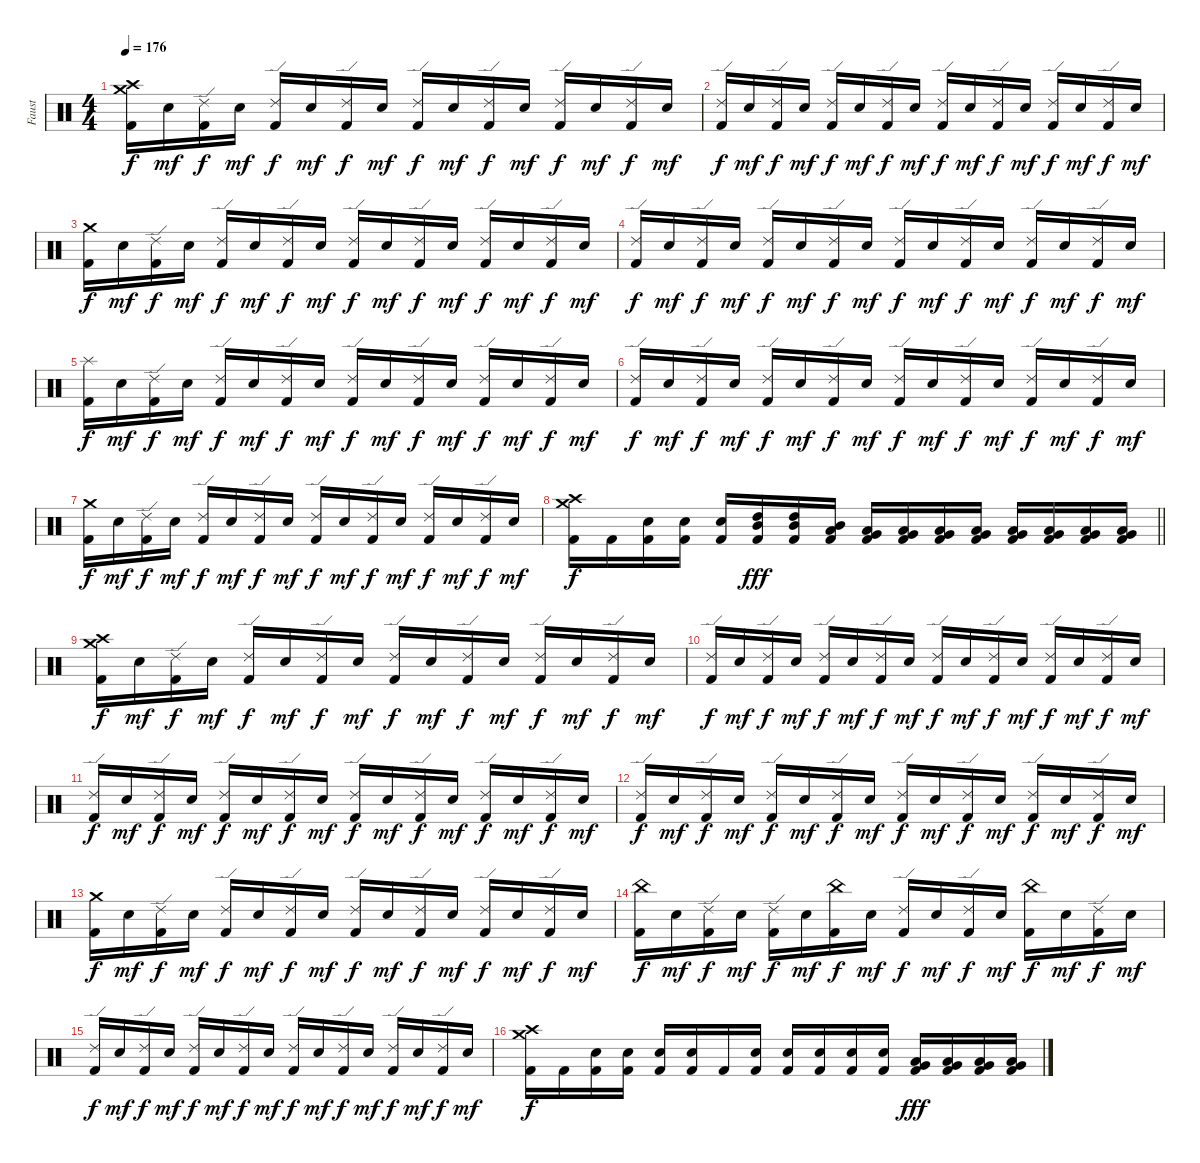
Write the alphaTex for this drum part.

\track ("Faust" "Faust") {instrument percussion}
\staff {score}
\articulation defaults
\ts (4 4)
\section ("" "")
\tempo 176
\clef neutral
\ks c
("Crash high (hit)" "Crash medium (hit)" "Kick (hit) 2").16{dy f} "Electric Snare (hit)".16{dy mf} ("Ride (edge) 2" "Kick (hit) 2").16{dy f} "Electric Snare (hit)".16{dy mf} ("Ride (edge) 2" "Kick (hit) 2").16{dy f} "Electric Snare (hit)".16{dy mf} ("Ride (edge) 2" "Kick (hit) 2").16{dy f} "Electric Snare (hit)".16{dy mf} ("Ride (edge) 2" "Kick (hit) 2").16{dy f} "Electric Snare (hit)".16{dy mf} ("Ride (edge) 2" "Kick (hit) 2").16{dy f} "Electric Snare (hit)".16{dy mf} ("Ride (edge) 2" "Kick (hit) 2").16{dy f} "Electric Snare (hit)".16{dy mf} ("Ride (edge) 2" "Kick (hit) 2").16{dy f} "Electric Snare (hit)".16{dy mf} |
("Ride (edge) 2" "Kick (hit) 2").16{dy f} "Electric Snare (hit)".16{dy mf} ("Ride (edge) 2" "Kick (hit) 2").16{dy f} "Electric Snare (hit)".16{dy mf} ("Ride (edge) 2" "Kick (hit) 2").16{dy f} "Electric Snare (hit)".16{dy mf} ("Ride (edge) 2" "Kick (hit) 2").16{dy f} "Electric Snare (hit)".16{dy mf} ("Ride (edge) 2" "Kick (hit) 2").16{dy f} "Electric Snare (hit)".16{dy mf} ("Ride (edge) 2" "Kick (hit) 2").16{dy f} "Electric Snare (hit)".16{dy mf} ("Ride (edge) 2" "Kick (hit) 2").16{dy f} "Electric Snare (hit)".16{dy mf} ("Ride (edge) 2" "Kick (hit) 2").16{dy f} "Electric Snare (hit)".16{dy mf} |
("Crash medium (hit)" "Kick (hit) 2").16{dy f} "Electric Snare (hit)".16{dy mf} ("Ride (edge) 2" "Kick (hit) 2").16{dy f} "Electric Snare (hit)".16{dy mf} ("Ride (edge) 2" "Kick (hit) 2").16{dy f} "Electric Snare (hit)".16{dy mf} ("Ride (edge) 2" "Kick (hit) 2").16{dy f} "Electric Snare (hit)".16{dy mf} ("Ride (edge) 2" "Kick (hit) 2").16{dy f} "Electric Snare (hit)".16{dy mf} ("Ride (edge) 2" "Kick (hit) 2").16{dy f} "Electric Snare (hit)".16{dy mf} ("Ride (edge) 2" "Kick (hit) 2").16{dy f} "Electric Snare (hit)".16{dy mf} ("Ride (edge) 2" "Kick (hit) 2").16{dy f} "Electric Snare (hit)".16{dy mf} |
("Ride (edge) 2" "Kick (hit) 2").16{dy f} "Electric Snare (hit)".16{dy mf} ("Ride (edge) 2" "Kick (hit) 2").16{dy f} "Electric Snare (hit)".16{dy mf} ("Ride (edge) 2" "Kick (hit) 2").16{dy f} "Electric Snare (hit)".16{dy mf} ("Ride (edge) 2" "Kick (hit) 2").16{dy f} "Electric Snare (hit)".16{dy mf} ("Ride (edge) 2" "Kick (hit) 2").16{dy f} "Electric Snare (hit)".16{dy mf} ("Ride (edge) 2" "Kick (hit) 2").16{dy f} "Electric Snare (hit)".16{dy mf} ("Ride (edge) 2" "Kick (hit) 2").16{dy f} "Electric Snare (hit)".16{dy mf} ("Ride (edge) 2" "Kick (hit) 2").16{dy f} "Electric Snare (hit)".16{dy mf} |
("Splash (hit)" "Kick (hit) 2").16{dy f} "Electric Snare (hit)".16{dy mf} ("Ride (edge) 2" "Kick (hit) 2").16{dy f} "Electric Snare (hit)".16{dy mf} ("Ride (edge) 2" "Kick (hit) 2").16{dy f} "Electric Snare (hit)".16{dy mf} ("Ride (edge) 2" "Kick (hit) 2").16{dy f} "Electric Snare (hit)".16{dy mf} ("Ride (edge) 2" "Kick (hit) 2").16{dy f} "Electric Snare (hit)".16{dy mf} ("Ride (edge) 2" "Kick (hit) 2").16{dy f} "Electric Snare (hit)".16{dy mf} ("Ride (edge) 2" "Kick (hit) 2").16{dy f} "Electric Snare (hit)".16{dy mf} ("Ride (edge) 2" "Kick (hit) 2").16{dy f} "Electric Snare (hit)".16{dy mf} |
("Ride (edge) 2" "Kick (hit) 2").16{dy f} "Electric Snare (hit)".16{dy mf} ("Ride (edge) 2" "Kick (hit) 2").16{dy f} "Electric Snare (hit)".16{dy mf} ("Ride (edge) 2" "Kick (hit) 2").16{dy f} "Electric Snare (hit)".16{dy mf} ("Ride (edge) 2" "Kick (hit) 2").16{dy f} "Electric Snare (hit)".16{dy mf} ("Ride (edge) 2" "Kick (hit) 2").16{dy f} "Electric Snare (hit)".16{dy mf} ("Ride (edge) 2" "Kick (hit) 2").16{dy f} "Electric Snare (hit)".16{dy mf} ("Ride (edge) 2" "Kick (hit) 2").16{dy f} "Electric Snare (hit)".16{dy mf} ("Ride (edge) 2" "Kick (hit) 2").16{dy f} "Electric Snare (hit)".16{dy mf} |
("Crash medium (hit)" "Kick (hit) 2").16{dy f} "Electric Snare (hit)".16{dy mf} ("Ride (edge) 2" "Kick (hit) 2").16{dy f} "Electric Snare (hit)".16{dy mf} ("Ride (edge) 2" "Kick (hit) 2").16{dy f} "Electric Snare (hit)".16{dy mf} ("Ride (edge) 2" "Kick (hit) 2").16{dy f} "Electric Snare (hit)".16{dy mf} ("Ride (edge) 2" "Kick (hit) 2").16{dy f} "Electric Snare (hit)".16{dy mf} ("Ride (edge) 2" "Kick (hit) 2").16{dy f} "Electric Snare (hit)".16{dy mf} ("Ride (edge) 2" "Kick (hit) 2").16{dy f} "Electric Snare (hit)".16{dy mf} ("Ride (edge) 2" "Kick (hit) 2").16{dy f} "Electric Snare (hit)".16{dy mf} |
\barLineRight lightlight
("Crash medium (hit)" "Crash high (hit)" "Kick (hit) 2").16{dy f} "Kick (hit) 2".16 ("Electric Snare (hit)" "Kick (hit) 2").16 ("Electric Snare (hit)" "Kick (hit) 2").16 ("Electric Snare (hit)" "Kick (hit) 2").16 ("High Tom (hit)" "Mid Tom (hit)" "Kick (hit) 2").16{dy fff} ("High Tom (hit)" "Mid Tom (hit)" "Kick (hit) 2").16 ("Mid Tom (hit)" "Low Tom (hit)" "Kick (hit) 2").16 ("Low Tom (hit)" "Very Low Tom (hit)" "Kick (hit) 2").16 ("Low Tom (hit)" "Very Low Tom (hit)" "Kick (hit) 2").16 ("Low Tom (hit)" "Very Low Tom (hit)" "Kick (hit) 2").16 ("Low Tom (hit)" "Very Low Tom (hit)" "Kick (hit) 2").16 ("Very Low Tom (hit)" "Low Floor Tom (hit)" "Kick (hit) 2").16 ("Very Low Tom (hit)" "Low Floor Tom (hit)" "Kick (hit) 2").16 ("Very Low Tom (hit)" "Low Floor Tom (hit)" "Kick (hit) 2").16 ("Very Low Tom (hit)" "Low Floor Tom (hit)" "Kick (hit) 2").16 |
\section ("" "")
("Crash high (hit)" "Crash medium (hit)" "Kick (hit) 2").16{dy f} "Electric Snare (hit)".16{dy mf} ("Ride (edge) 2" "Kick (hit) 2").16{dy f} "Electric Snare (hit)".16{dy mf} ("Ride (edge) 2" "Kick (hit) 2").16{dy f} "Electric Snare (hit)".16{dy mf} ("Ride (edge) 2" "Kick (hit) 2").16{dy f} "Electric Snare (hit)".16{dy mf} ("Ride (edge) 2" "Kick (hit) 2").16{dy f} "Electric Snare (hit)".16{dy mf} ("Ride (edge) 2" "Kick (hit) 2").16{dy f} "Electric Snare (hit)".16{dy mf} ("Ride (edge) 2" "Kick (hit) 2").16{dy f} "Electric Snare (hit)".16{dy mf} ("Ride (edge) 2" "Kick (hit) 2").16{dy f} "Electric Snare (hit)".16{dy mf} |
("Ride (edge) 2" "Kick (hit) 2").16{dy f} "Electric Snare (hit)".16{dy mf} ("Ride (edge) 2" "Kick (hit) 2").16{dy f} "Electric Snare (hit)".16{dy mf} ("Ride (edge) 2" "Kick (hit) 2").16{dy f} "Electric Snare (hit)".16{dy mf} ("Ride (edge) 2" "Kick (hit) 2").16{dy f} "Electric Snare (hit)".16{dy mf} ("Ride (edge) 2" "Kick (hit) 2").16{dy f} "Electric Snare (hit)".16{dy mf} ("Ride (edge) 2" "Kick (hit) 2").16{dy f} "Electric Snare (hit)".16{dy mf} ("Ride (edge) 2" "Kick (hit) 2").16{dy f} "Electric Snare (hit)".16{dy mf} ("Ride (edge) 2" "Kick (hit) 2").16{dy f} "Electric Snare (hit)".16{dy mf} |
("Ride (edge) 2" "Kick (hit) 2").16{dy f} "Electric Snare (hit)".16{dy mf} ("Ride (edge) 2" "Kick (hit) 2").16{dy f} "Electric Snare (hit)".16{dy mf} ("Ride (edge) 2" "Kick (hit) 2").16{dy f} "Electric Snare (hit)".16{dy mf} ("Ride (edge) 2" "Kick (hit) 2").16{dy f} "Electric Snare (hit)".16{dy mf} ("Ride (edge) 2" "Kick (hit) 2").16{dy f} "Electric Snare (hit)".16{dy mf} ("Ride (edge) 2" "Kick (hit) 2").16{dy f} "Electric Snare (hit)".16{dy mf} ("Ride (edge) 2" "Kick (hit) 2").16{dy f} "Electric Snare (hit)".16{dy mf} ("Ride (edge) 2" "Kick (hit) 2").16{dy f} "Electric Snare (hit)".16{dy mf} |
("Ride (edge) 2" "Kick (hit) 2").16{dy f} "Electric Snare (hit)".16{dy mf} ("Ride (edge) 2" "Kick (hit) 2").16{dy f} "Electric Snare (hit)".16{dy mf} ("Ride (edge) 2" "Kick (hit) 2").16{dy f} "Electric Snare (hit)".16{dy mf} ("Ride (edge) 2" "Kick (hit) 2").16{dy f} "Electric Snare (hit)".16{dy mf} ("Ride (edge) 2" "Kick (hit) 2").16{dy f} "Electric Snare (hit)".16{dy mf} ("Ride (edge) 2" "Kick (hit) 2").16{dy f} "Electric Snare (hit)".16{dy mf} ("Ride (edge) 2" "Kick (hit) 2").16{dy f} "Electric Snare (hit)".16{dy mf} ("Ride (edge) 2" "Kick (hit) 2").16{dy f} "Electric Snare (hit)".16{dy mf} |
("Crash medium (hit)" "Kick (hit) 2").16{dy f} "Electric Snare (hit)".16{dy mf} ("Ride (edge) 2" "Kick (hit) 2").16{dy f} "Electric Snare (hit)".16{dy mf} ("Ride (edge) 2" "Kick (hit) 2").16{dy f} "Electric Snare (hit)".16{dy mf} ("Ride (edge) 2" "Kick (hit) 2").16{dy f} "Electric Snare (hit)".16{dy mf} ("Ride (edge) 2" "Kick (hit) 2").16{dy f} "Electric Snare (hit)".16{dy mf} ("Ride (edge) 2" "Kick (hit) 2").16{dy f} "Electric Snare (hit)".16{dy mf} ("Ride (edge) 2" "Kick (hit) 2").16{dy f} "Electric Snare (hit)".16{dy mf} ("Ride (edge) 2" "Kick (hit) 2").16{dy f} "Electric Snare (hit)".16{dy mf} |
("China (hit)" "Kick (hit) 2").16{dy f} "Electric Snare (hit)".16{dy mf} ("Ride (edge) 2" "Kick (hit) 2").16{dy f} "Electric Snare (hit)".16{dy mf} ("Ride (edge) 2" "Kick (hit) 2").16{dy f} "Electric Snare (hit)".16{dy mf} ("China (hit)" "Kick (hit) 2").16{dy f} "Electric Snare (hit)".16{dy mf} ("Ride (edge) 2" "Kick (hit) 2").16{dy f} "Electric Snare (hit)".16{dy mf} ("Ride (edge) 2" "Kick (hit) 2").16{dy f} "Electric Snare (hit)".16{dy mf} ("China (hit)" "Kick (hit) 2").16{dy f} "Electric Snare (hit)".16{dy mf} ("Ride (edge) 2" "Kick (hit) 2").16{dy f} "Electric Snare (hit)".16{dy mf} |
("Ride (edge) 2" "Kick (hit) 2").16{dy f} "Electric Snare (hit)".16{dy mf} ("Ride (edge) 2" "Kick (hit) 2").16{dy f} "Electric Snare (hit)".16{dy mf} ("Ride (edge) 2" "Kick (hit) 2").16{dy f} "Electric Snare (hit)".16{dy mf} ("Ride (edge) 2" "Kick (hit) 2").16{dy f} "Electric Snare (hit)".16{dy mf} ("Ride (edge) 2" "Kick (hit) 2").16{dy f} "Electric Snare (hit)".16{dy mf} ("Ride (edge) 2" "Kick (hit) 2").16{dy f} "Electric Snare (hit)".16{dy mf} ("Ride (edge) 2" "Kick (hit) 2").16{dy f} "Electric Snare (hit)".16{dy mf} ("Ride (edge) 2" "Kick (hit) 2").16{dy f} "Electric Snare (hit)".16{dy mf} |
("Crash high (hit)" "Crash medium (hit)" "Kick (hit) 2").16{dy f} "Kick (hit) 2".16 ("Electric Snare (hit)" "Kick (hit) 2").16 ("Electric Snare (hit)" "Kick (hit) 2").16 ("Electric Snare (hit)" "Kick (hit) 2").16 ("Electric Snare (hit)" "Kick (hit) 2").16 "Kick (hit) 2".16 ("Electric Snare (hit)" "Kick (hit) 2").16 ("Electric Snare (hit)" "Kick (hit) 2").16 ("Electric Snare (hit)" "Kick (hit) 2").16 ("Electric Snare (hit)" "Kick (hit) 2").16 ("Electric Snare (hit)" "Kick (hit) 2").16 ("Very Low Tom (hit)" "Low Tom (hit)" "Kick (hit) 2").16{dy fff} ("Very Low Tom (hit)" "Low Tom (hit)" "Kick (hit) 2").16 ("Low Floor Tom (hit)" "Very Low Tom (hit)" "Kick (hit) 2").16 ("Low Floor Tom (hit)" "Very Low Tom (hit)" "Kick (hit) 2").16
